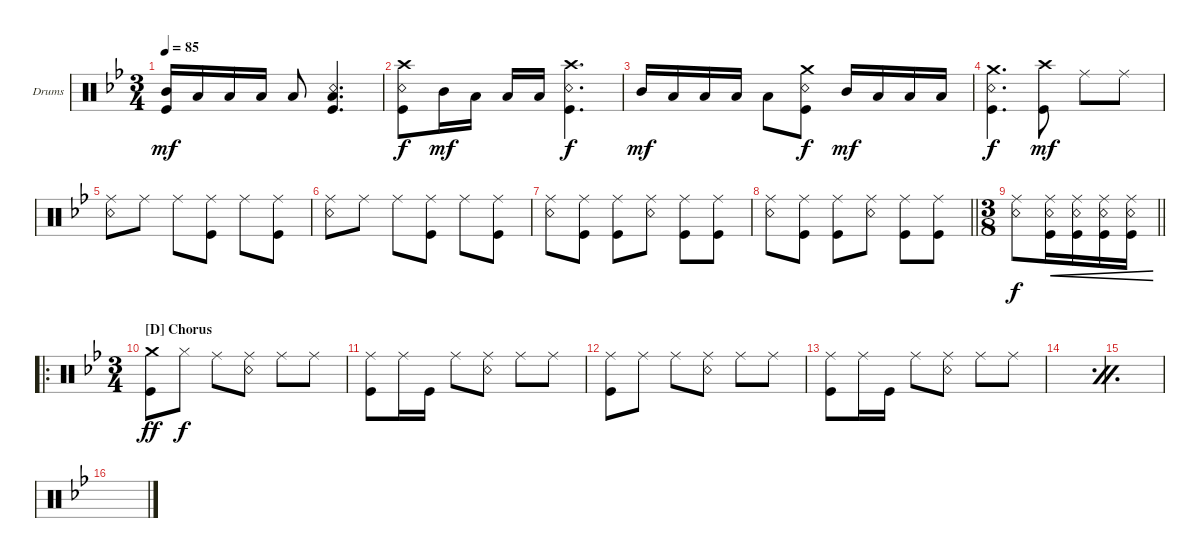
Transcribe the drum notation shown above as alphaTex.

\bracketExtendMode groupsimilarinstruments
\firstSystemTrackNameOrientation horizontal
\otherSystemsTrackNameOrientation horizontal
\track ("Drums" "Drums") {instrument percussion}
\staff {score}
\articulation defaults
\ts (3 4)
\tempo 85
\clef neutral
\scale
0.333333
\ks bb
("Kick (hit)" "Mid Tom (hit)").16{dy mf} "Low Tom (hit)".16 "Low Tom (hit)".16 "Low Tom (hit)".16 "Low Tom (hit)".8 ("Snare (rim shot)" "Kick (hit)" "Low Tom (hit)").4{d} |
\scale
0.333333 ("Kick (hit)" "Crash high (hit)" "Snare (rim shot)").8{dy f} "Mid Tom (hit)".16{dy mf} "Low Tom (hit)".16 "Low Tom (hit)".16 "Low Tom (hit)".16 ("Snare (rim shot)" "Kick (hit)" "Crash high (hit)").4{d dy f} |
\scale
0.333333 "Mid Tom (hit)".16{dy mf} "Low Tom (hit)".16 "Low Tom (hit)".16 "Low Tom (hit)".16 "Low Tom (hit)".8 ("Kick (hit)" "Snare (rim shot)" "Crash medium (hit)").8{dy f} "Mid Tom (hit)".16{dy mf} "Low Tom (hit)".16 "Low Tom (hit)".16 "Low Tom (hit)".16 |
\scale
0.333333 ("Kick (hit)" "Snare (rim shot)" "Crash medium (hit)").4{d dy f} ("Crash high (hit)" "Kick (hit)").8{dy mf} "Ride (middle)".8 "Ride (middle)".8 |
\scale
0.333333 ("Ride (middle)" "Snare (rim shot)").8 "Ride (middle)".8 "Ride (middle)".8 ("Ride (middle)" "Kick (hit)").8 "Ride (middle)".8 ("Ride (middle)" "Kick (hit)").8 |
\scale
0.333333 ("Ride (middle)" "Snare (rim shot)").8 "Ride (middle)".8 "Ride (middle)".8 ("Ride (middle)" "Kick (hit)").8 "Ride (middle)".8 ("Ride (middle)" "Kick (hit)").8 |
\scale
0.333333 ("Snare (rim shot)" "Ride (middle)").8 ("Ride (middle)" "Kick (hit)").8 ("Ride (middle)" "Kick (hit)").8 ("Ride (middle)" "Snare (rim shot)").8 ("Ride (middle)" "Kick (hit)").8 ("Ride (middle)" "Kick (hit)").8 |
\scale
0.311111
\barLineRight lightlight
("Ride (middle)" "Snare (rim shot)").8 ("Ride (middle)" "Kick (hit)").8 ("Ride (middle)" "Kick (hit)").8 ("Ride (middle)" "Snare (rim shot)").8 ("Ride (middle)" "Kick (hit)").8 ("Ride (middle)" "Kick (hit)").8 |
\ts (3 8)
\scale
0.311111
\barLineRight lightlight
("Ride (middle)" "Snare (rim shot)").8{dy f} ("Ride (middle)" "Snare (rim shot)" "Kick (hit)").16{cre} ("Ride (middle)" "Kick (hit)" "Snare (rim shot)").16{cre} ("Snare (rim shot)" "Kick (hit)" "Ride (middle)").16{cre} ("Kick (hit)" "Snare (rim shot)" "Ride (middle)").16{cre} |
\ro
\ts (3 4)
\section ("D" "Chorus")
\scale
0.377778 ("Crash medium (hit)" "Kick (hit)").8{dy ff} "Hi-Hat (closed)".8{dy f} "Ride (middle)".8 ("Ride (middle)" "Snare (rim shot)").8 "Ride (middle)".8 "Ride (middle)".8 |
\scale
0.356322 ("Ride (middle)" "Kick (hit)").8 "Ride (middle)".16 "Kick (hit)".16 "Ride (middle)".8 ("Ride (middle)" "Snare (rim shot)").8 "Ride (middle)".8 "Ride (middle)".8 |
("Kick (hit)" "Ride (middle)").8 "Ride (middle)".8 "Ride (middle)".8 ("Ride (middle)" "Snare (rim shot)").8 "Ride (middle)".8 "Ride (middle)".8 |
("Ride (middle)" "Kick (hit)").8 "Ride (middle)".16 "Kick (hit)".16 "Ride (middle)".8 ("Ride (middle)" "Snare (rim shot)").8 "Ride (middle)".8 "Ride (middle)".8 |
\simile firstofdouble
|
\simile secondofdouble
|
\simile firstofdouble
